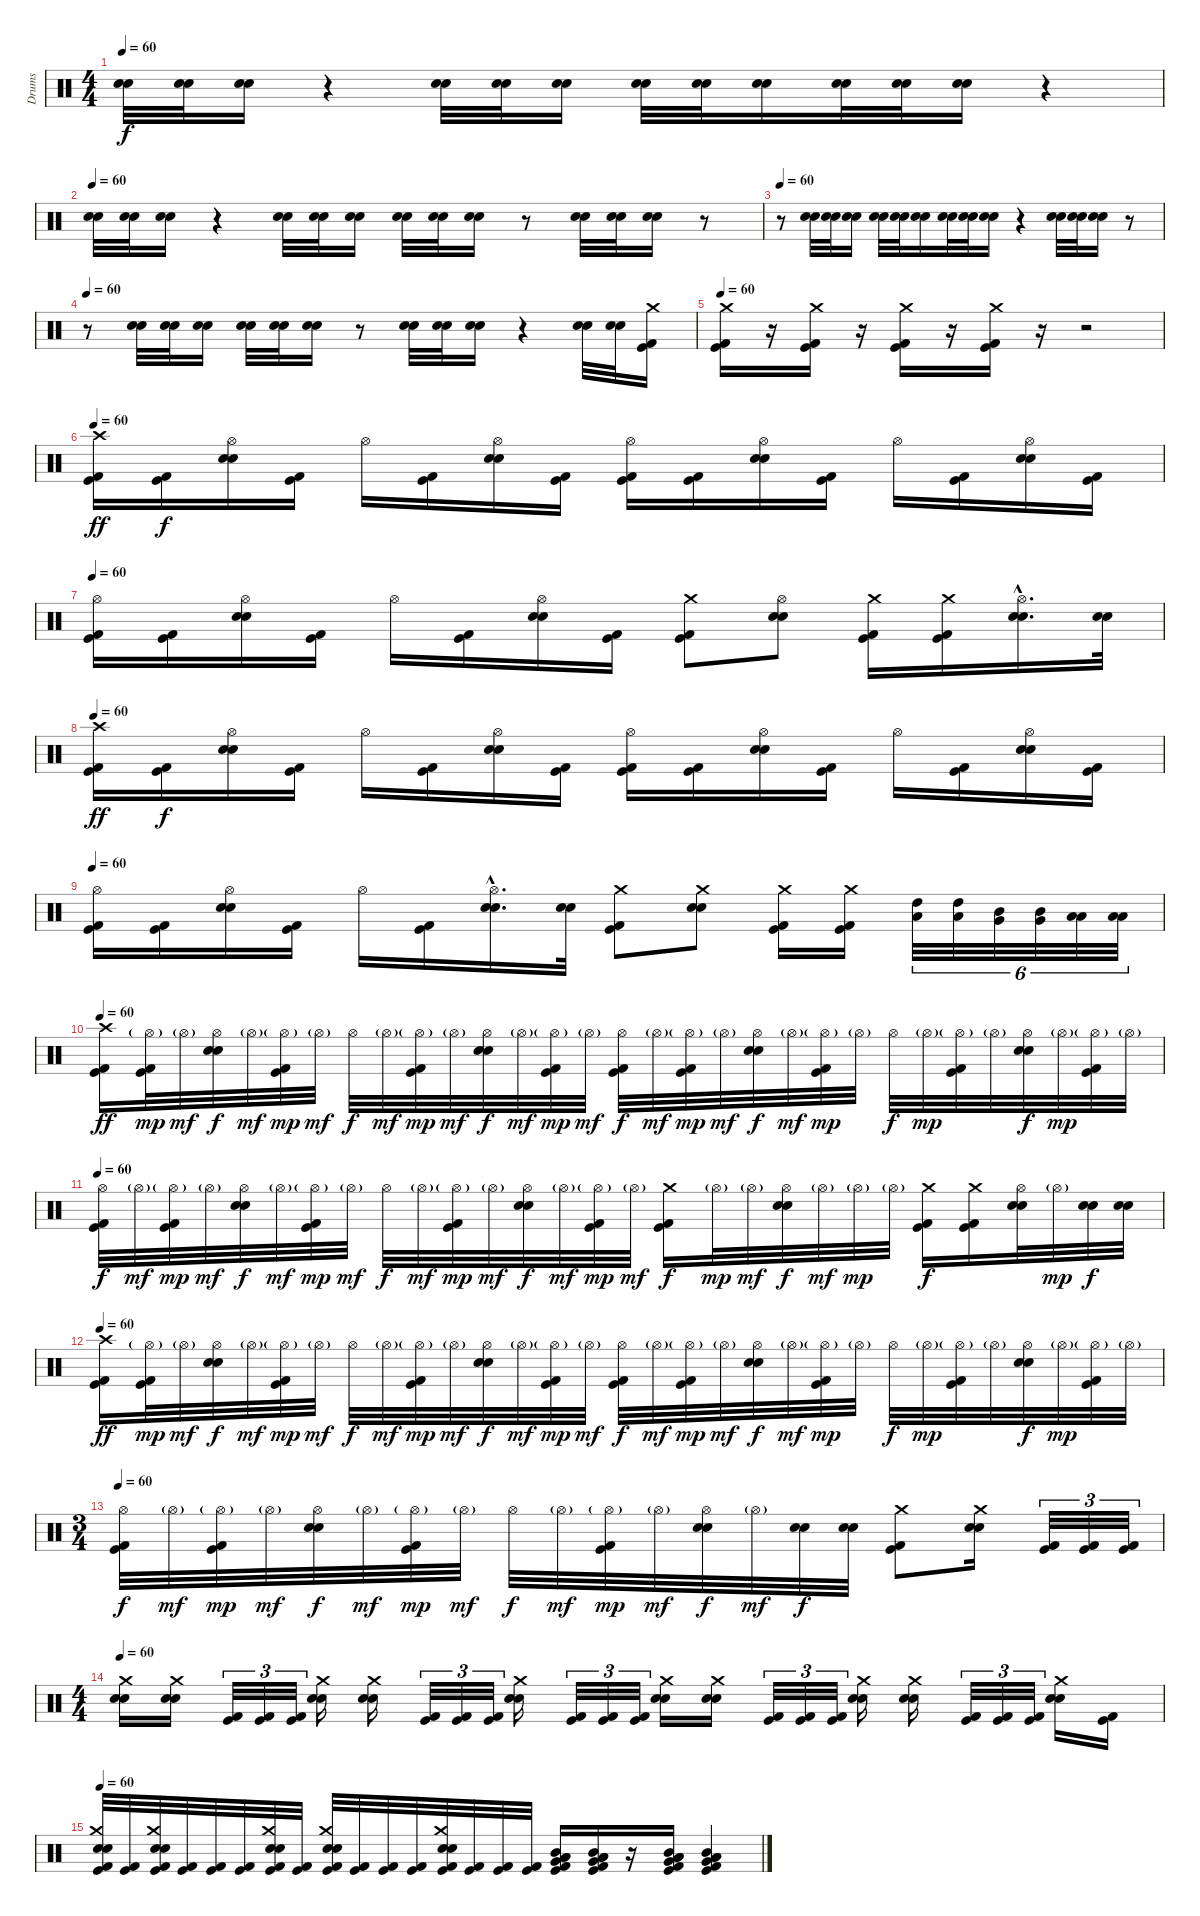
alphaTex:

\track ("Drums" "Drums") {instrument percussion}
\staff {score}
\articulation defaults
\ts (4 4)
\tempo 60
\clef neutral
\ks c
("Electric Snare (hit)" "Snare (hit) 2").32{dy f} ("Electric Snare (hit)" "Snare (hit) 2").32 ("Electric Snare (hit)" "Snare (hit) 2").16 r.4 ("Electric Snare (hit)" "Snare (hit) 2").32 ("Electric Snare (hit)" "Snare (hit) 2").32 ("Electric Snare (hit)" "Snare (hit) 2").16 ("Electric Snare (hit)" "Snare (hit) 2").32 ("Electric Snare (hit)" "Snare (hit) 2").32 ("Electric Snare (hit)" "Snare (hit) 2").16 ("Electric Snare (hit)" "Snare (hit) 2").32 ("Electric Snare (hit)" "Snare (hit) 2").32 ("Electric Snare (hit)" "Snare (hit) 2").16 r.4 |
\tempo 60
("Electric Snare (hit)" "Snare (hit) 2").32 ("Electric Snare (hit)" "Snare (hit) 2").32 ("Electric Snare (hit)" "Snare (hit) 2").16 r.4 ("Electric Snare (hit)" "Snare (hit) 2").32 ("Electric Snare (hit)" "Snare (hit) 2").32 ("Electric Snare (hit)" "Snare (hit) 2").16 ("Electric Snare (hit)" "Snare (hit) 2").32 ("Electric Snare (hit)" "Snare (hit) 2").32 ("Electric Snare (hit)" "Snare (hit) 2").16 r.8 ("Electric Snare (hit)" "Snare (hit) 2").32 ("Electric Snare (hit)" "Snare (hit) 2").32 ("Electric Snare (hit)" "Snare (hit) 2").16 r.8 |
\tempo 60
r.8 ("Electric Snare (hit)" "Snare (hit) 2").32 ("Electric Snare (hit)" "Snare (hit) 2").32 ("Electric Snare (hit)" "Snare (hit) 2").16 ("Electric Snare (hit)" "Snare (hit) 2").32 ("Electric Snare (hit)" "Snare (hit) 2").32 ("Electric Snare (hit)" "Snare (hit) 2").16 ("Electric Snare (hit)" "Snare (hit) 2").32 ("Electric Snare (hit)" "Snare (hit) 2").32 ("Electric Snare (hit)" "Snare (hit) 2").16 r.4 ("Electric Snare (hit)" "Snare (hit) 2").32 ("Electric Snare (hit)" "Snare (hit) 2").32 ("Electric Snare (hit)" "Snare (hit) 2").16 r.8 |
\tempo 60
r.8 ("Electric Snare (hit)" "Snare (hit) 2").32 ("Electric Snare (hit)" "Snare (hit) 2").32 ("Electric Snare (hit)" "Snare (hit) 2").16 ("Electric Snare (hit)" "Snare (hit) 2").32 ("Electric Snare (hit)" "Snare (hit) 2").32 ("Electric Snare (hit)" "Snare (hit) 2").16 r.8 ("Electric Snare (hit)" "Snare (hit) 2").32 ("Electric Snare (hit)" "Snare (hit) 2").32 ("Electric Snare (hit)" "Snare (hit) 2").16 r.4 ("Electric Snare (hit)" "Snare (hit) 2").32 ("Electric Snare (hit)" "Snare (hit) 2").32 ("Crash medium (hit)" "Kick (hit) 2" "Kick (hit)").16 |
\tempo 60
("Crash medium (hit)" "Kick (hit) 2" "Kick (hit)").16 r.16 ("Crash medium (hit)" "Kick (hit) 2" "Kick (hit)").16 r.16 ("Crash medium (hit)" "Kick (hit) 2" "Kick (hit)").16 r.16 ("Crash medium (hit)" "Kick (hit) 2" "Kick (hit)").16 r.16 r.2 |
\tempo 60
("Crash high (hit)" "Kick (hit) 2" "Kick (hit)").16{dy ff} ("Kick (hit) 2" "Kick (hit)").16{dy f} ("Hi-Hat (open)" "Electric Snare (hit)" "Snare (hit) 2").16 ("Kick (hit) 2" "Kick (hit)").16 "Hi-Hat (open)".16 ("Kick (hit) 2" "Kick (hit)").16 ("Hi-Hat (open)" "Electric Snare (hit)" "Snare (hit) 2").16 ("Kick (hit) 2" "Kick (hit)").16 ("Hi-Hat (open)" "Kick (hit) 2" "Kick (hit)").16 ("Kick (hit) 2" "Kick (hit)").16 ("Hi-Hat (open)" "Electric Snare (hit)" "Snare (hit) 2").16 ("Kick (hit) 2" "Kick (hit)").16 "Hi-Hat (open)".16 ("Kick (hit) 2" "Kick (hit)").16 ("Hi-Hat (open)" "Electric Snare (hit)" "Snare (hit) 2").16 ("Kick (hit) 2" "Kick (hit)").16 |
\tempo 60
("Hi-Hat (open)" "Kick (hit) 2" "Kick (hit)").16 ("Kick (hit) 2" "Kick (hit)").16 ("Hi-Hat (open)" "Electric Snare (hit)" "Snare (hit) 2").16 ("Kick (hit) 2" "Kick (hit)").16 "Hi-Hat (open)".16 ("Kick (hit) 2" "Kick (hit)").16 ("Hi-Hat (open)" "Electric Snare (hit)" "Snare (hit) 2").16 ("Kick (hit) 2" "Kick (hit)").16 ("Crash medium (hit)" "Kick (hit) 2" "Kick (hit)").8 ("Hi-Hat (open)" "Electric Snare (hit)" "Snare (hit) 2").8 ("Crash medium (hit)" "Kick (hit) 2" "Kick (hit)").16 ("Crash medium (hit)" "Kick (hit) 2" "Kick (hit)").16 ("Hi-Hat (open)"{hac} "Electric Snare (hit)"{hac} "Snare (hit) 2"{hac}).16{d} ("Electric Snare (hit)" "Snare (hit) 2").32 |
\tempo 60
("Crash high (hit)" "Kick (hit) 2" "Kick (hit)").16{dy ff} ("Kick (hit) 2" "Kick (hit)").16{dy f} ("Hi-Hat (open)" "Electric Snare (hit)" "Snare (hit) 2").16 ("Kick (hit) 2" "Kick (hit)").16 "Hi-Hat (open)".16 ("Kick (hit) 2" "Kick (hit)").16 ("Hi-Hat (open)" "Electric Snare (hit)" "Snare (hit) 2").16 ("Kick (hit) 2" "Kick (hit)").16 ("Hi-Hat (open)" "Kick (hit) 2" "Kick (hit)").16 ("Kick (hit) 2" "Kick (hit)").16 ("Hi-Hat (open)" "Electric Snare (hit)" "Snare (hit) 2").16 ("Kick (hit) 2" "Kick (hit)").16 "Hi-Hat (open)".16 ("Kick (hit) 2" "Kick (hit)").16 ("Hi-Hat (open)" "Electric Snare (hit)" "Snare (hit) 2").16 ("Kick (hit) 2" "Kick (hit)").16 |
\tempo 60
("Hi-Hat (open)" "Kick (hit) 2" "Kick (hit)").16 ("Kick (hit) 2" "Kick (hit)").16 ("Hi-Hat (open)" "Electric Snare (hit)" "Snare (hit) 2").16 ("Kick (hit) 2" "Kick (hit)").16 "Hi-Hat (open)".16 ("Kick (hit) 2" "Kick (hit)").16 ("Hi-Hat (open)"{hac} "Electric Snare (hit)"{hac} "Snare (hit) 2"{hac}).16{d} ("Electric Snare (hit)" "Snare (hit) 2").32 ("Crash medium (hit)" "Kick (hit) 2" "Kick (hit)").8 ("Crash medium (hit)" "Electric Snare (hit)" "Snare (hit) 2").8 ("Crash medium (hit)" "Kick (hit) 2" "Kick (hit)").16 ("Crash medium (hit)" "Kick (hit) 2" "Kick (hit)").16 ("High Tom (hit)" "Low Tom (hit)").32{tu (6 4)} ("High Tom (hit)" "Low Tom (hit)").32{tu (6 4)} ("Mid Tom (hit)" "Very Low Tom (hit)").32{tu (6 4)} ("Mid Tom (hit)" "Very Low Tom (hit)").32{tu (6 4)} ("Low Tom (hit)" "Low Floor Tom (hit)").32{tu (6 4)} ("Low Tom (hit)" "Low Floor Tom (hit)").32{tu (6 4)} |
\tempo 60
("Crash high (hit)" "Kick (hit) 2" "Kick (hit)").16{dy ff} ("Hi-Hat (open)"{g} "Kick (hit) 2" "Kick (hit)").32{dy mp} "Hi-Hat (open)"{g}.32{dy mf} ("Hi-Hat (open)" "Electric Snare (hit)" "Snare (hit) 2").32{dy f} "Hi-Hat (open)"{g}.32{dy mf} ("Hi-Hat (open)"{g} "Kick (hit) 2" "Kick (hit)").32{dy mp} "Hi-Hat (open)"{g}.32{dy mf} "Hi-Hat (open)".32{dy f} "Hi-Hat (open)"{g}.32{dy mf} ("Hi-Hat (open)"{g} "Kick (hit) 2" "Kick (hit)").32{dy mp} "Hi-Hat (open)"{g}.32{dy mf} ("Hi-Hat (open)" "Electric Snare (hit)" "Snare (hit) 2").32{dy f} "Hi-Hat (open)"{g}.32{dy mf} ("Hi-Hat (open)"{g} "Kick (hit) 2" "Kick (hit)").32{dy mp} "Hi-Hat (open)"{g}.32{dy mf} ("Hi-Hat (open)" "Kick (hit) 2" "Kick (hit)").32{dy f} "Hi-Hat (open)"{g}.32{dy mf} ("Hi-Hat (open)"{g} "Kick (hit) 2" "Kick (hit)").32{dy mp} "Hi-Hat (open)"{g}.32{dy mf} ("Hi-Hat (open)" "Electric Snare (hit)" "Snare (hit) 2").32{dy f} "Hi-Hat (open)"{g}.32{dy mf} ("Hi-Hat (open)"{g} "Kick (hit) 2" "Kick (hit)").32{dy mp} "Hi-Hat (open)"{g}.32 "Hi-Hat (open)".32{dy f} "Hi-Hat (open)"{g}.32{dy mp} ("Hi-Hat (open)"{g} "Kick (hit) 2" "Kick (hit)").32 "Hi-Hat (open)"{g}.32 ("Hi-Hat (open)" "Electric Snare (hit)" "Snare (hit) 2").32{dy f} "Hi-Hat (open)"{g}.32{dy mp} ("Hi-Hat (open)"{g} "Kick (hit) 2" "Kick (hit)").32 "Hi-Hat (open)"{g}.32 |
\tempo 60
("Hi-Hat (open)" "Kick (hit) 2" "Kick (hit)").32{dy f} "Hi-Hat (open)"{g}.32{dy mf} ("Hi-Hat (open)"{g} "Kick (hit) 2" "Kick (hit)").32{dy mp} "Hi-Hat (open)"{g}.32{dy mf} ("Hi-Hat (open)" "Electric Snare (hit)" "Snare (hit) 2").32{dy f} "Hi-Hat (open)"{g}.32{dy mf} ("Hi-Hat (open)"{g} "Kick (hit) 2" "Kick (hit)").32{dy mp} "Hi-Hat (open)"{g}.32{dy mf} "Hi-Hat (open)".32{dy f} "Hi-Hat (open)"{g}.32{dy mf} ("Hi-Hat (open)"{g} "Kick (hit) 2" "Kick (hit)").32{dy mp} "Hi-Hat (open)"{g}.32{dy mf} ("Hi-Hat (open)" "Electric Snare (hit)" "Snare (hit) 2").32{dy f} "Hi-Hat (open)"{g}.32{dy mf} ("Hi-Hat (open)"{g} "Kick (hit) 2" "Kick (hit)").32{dy mp} "Hi-Hat (open)"{g}.32{dy mf} ("Crash medium (hit)" "Kick (hit) 2" "Kick (hit)").16{dy f} "Hi-Hat (open)"{g}.32{dy mp} "Hi-Hat (open)"{g}.32{dy mf} ("Hi-Hat (open)" "Electric Snare (hit)" "Snare (hit) 2").32{dy f} "Hi-Hat (open)"{g}.32{dy mf} "Hi-Hat (open)"{g}.32{dy mp} "Hi-Hat (open)"{g}.32 ("Crash medium (hit)" "Kick (hit) 2" "Kick (hit)").16{dy f} ("Crash medium (hit)" "Kick (hit) 2" "Kick (hit)").16 ("Hi-Hat (open)" "Electric Snare (hit)" "Snare (hit) 2").32 "Hi-Hat (open)"{g}.32{dy mp} ("Electric Snare (hit)" "Snare (hit) 2").32{dy f} ("Electric Snare (hit)" "Snare (hit) 2").32 |
\tempo 60
("Crash high (hit)" "Kick (hit) 2" "Kick (hit)").16{dy ff} ("Hi-Hat (open)"{g} "Kick (hit) 2" "Kick (hit)").32{dy mp} "Hi-Hat (open)"{g}.32{dy mf} ("Hi-Hat (open)" "Electric Snare (hit)" "Snare (hit) 2").32{dy f} "Hi-Hat (open)"{g}.32{dy mf} ("Hi-Hat (open)"{g} "Kick (hit) 2" "Kick (hit)").32{dy mp} "Hi-Hat (open)"{g}.32{dy mf} "Hi-Hat (open)".32{dy f} "Hi-Hat (open)"{g}.32{dy mf} ("Hi-Hat (open)"{g} "Kick (hit) 2" "Kick (hit)").32{dy mp} "Hi-Hat (open)"{g}.32{dy mf} ("Hi-Hat (open)" "Electric Snare (hit)" "Snare (hit) 2").32{dy f} "Hi-Hat (open)"{g}.32{dy mf} ("Hi-Hat (open)"{g} "Kick (hit) 2" "Kick (hit)").32{dy mp} "Hi-Hat (open)"{g}.32{dy mf} ("Hi-Hat (open)" "Kick (hit) 2" "Kick (hit)").32{dy f} "Hi-Hat (open)"{g}.32{dy mf} ("Hi-Hat (open)"{g} "Kick (hit) 2" "Kick (hit)").32{dy mp} "Hi-Hat (open)"{g}.32{dy mf} ("Hi-Hat (open)" "Electric Snare (hit)" "Snare (hit) 2").32{dy f} "Hi-Hat (open)"{g}.32{dy mf} ("Hi-Hat (open)"{g} "Kick (hit) 2" "Kick (hit)").32{dy mp} "Hi-Hat (open)"{g}.32 "Hi-Hat (open)".32{dy f} "Hi-Hat (open)"{g}.32{dy mp} ("Hi-Hat (open)"{g} "Kick (hit) 2" "Kick (hit)").32 "Hi-Hat (open)"{g}.32 ("Hi-Hat (open)" "Electric Snare (hit)" "Snare (hit) 2").32{dy f} "Hi-Hat (open)"{g}.32{dy mp} ("Hi-Hat (open)"{g} "Kick (hit) 2" "Kick (hit)").32 "Hi-Hat (open)"{g}.32 |
\ts (3 4)
\tempo 60
("Hi-Hat (open)" "Kick (hit) 2" "Kick (hit)").32{dy f} "Hi-Hat (open)"{g}.32{dy mf} ("Hi-Hat (open)"{g} "Kick (hit) 2" "Kick (hit)").32{dy mp} "Hi-Hat (open)"{g}.32{dy mf} ("Hi-Hat (open)" "Electric Snare (hit)" "Snare (hit) 2").32{dy f} "Hi-Hat (open)"{g}.32{dy mf} ("Hi-Hat (open)"{g} "Kick (hit) 2" "Kick (hit)").32{dy mp} "Hi-Hat (open)"{g}.32{dy mf} "Hi-Hat (open)".32{dy f} "Hi-Hat (open)"{g}.32{dy mf} ("Hi-Hat (open)"{g} "Kick (hit) 2" "Kick (hit)").32{dy mp} "Hi-Hat (open)"{g}.32{dy mf} ("Hi-Hat (open)" "Electric Snare (hit)" "Snare (hit) 2").32{dy f} "Hi-Hat (open)"{g}.32{dy mf} ("Electric Snare (hit)" "Snare (hit) 2").32{dy f} ("Electric Snare (hit)" "Snare (hit) 2").32 ("Crash medium (hit)" "Kick (hit) 2" "Kick (hit)").8 ("Crash medium (hit)" "Electric Snare (hit)" "Snare (hit) 2").16 ("Kick (hit) 2" "Kick (hit)").32{tu (3 2)} ("Kick (hit) 2" "Kick (hit)").32{tu (3 2)} ("Kick (hit) 2" "Kick (hit)").32{tu (3 2)} |
\ts (4 4)
\tempo 60
("Crash medium (hit)" "Electric Snare (hit)" "Snare (hit) 2").16 ("Crash medium (hit)" "Electric Snare (hit)" "Snare (hit) 2").16 ("Kick (hit) 2" "Kick (hit)").32{tu (3 2)} ("Kick (hit) 2" "Kick (hit)").32{tu (3 2)} ("Kick (hit) 2" "Kick (hit)").32{tu (3 2)} ("Crash medium (hit)" "Electric Snare (hit)" "Snare (hit) 2").16 ("Crash medium (hit)" "Electric Snare (hit)" "Snare (hit) 2").16 ("Kick (hit) 2" "Kick (hit)").32{tu (3 2)} ("Kick (hit) 2" "Kick (hit)").32{tu (3 2)} ("Kick (hit) 2" "Kick (hit)").32{tu (3 2)} ("Crash medium (hit)" "Electric Snare (hit)" "Snare (hit) 2").16 ("Kick (hit) 2" "Kick (hit)").32{tu (3 2)} ("Kick (hit) 2" "Kick (hit)").32{tu (3 2)} ("Kick (hit) 2" "Kick (hit)").32{tu (3 2)} ("Crash medium (hit)" "Electric Snare (hit)" "Snare (hit) 2").16 ("Crash medium (hit)" "Electric Snare (hit)" "Snare (hit) 2").16 ("Kick (hit) 2" "Kick (hit)").32{tu (3 2)} ("Kick (hit) 2" "Kick (hit)").32{tu (3 2)} ("Kick (hit) 2" "Kick (hit)").32{tu (3 2)} ("Crash medium (hit)" "Electric Snare (hit)" "Snare (hit) 2").16 ("Crash medium (hit)" "Electric Snare (hit)" "Snare (hit) 2").16 ("Kick (hit) 2" "Kick (hit)").32{tu (3 2)} ("Kick (hit) 2" "Kick (hit)").32{tu (3 2)} ("Kick (hit) 2" "Kick (hit)").32{tu (3 2)} ("Crash medium (hit)" "Electric Snare (hit)" "Snare (hit) 2").16 ("Kick (hit) 2" "Kick (hit)").16 |
\tempo 60
("Crash medium (hit)" "Electric Snare (hit)" "Snare (hit) 2" "Kick (hit) 2" "Kick (hit)").32 ("Kick (hit) 2" "Kick (hit)").32 ("Crash medium (hit)" "Electric Snare (hit)" "Snare (hit) 2" "Kick (hit) 2" "Kick (hit)").32 ("Kick (hit) 2" "Kick (hit)").32 ("Kick (hit) 2" "Kick (hit)").32 ("Kick (hit) 2" "Kick (hit)").32 ("Crash medium (hit)" "Electric Snare (hit)" "Snare (hit) 2" "Kick (hit) 2" "Kick (hit)").32 ("Kick (hit) 2" "Kick (hit)").32 ("Crash medium (hit)" "Electric Snare (hit)" "Snare (hit) 2" "Kick (hit) 2" "Kick (hit)").32 ("Kick (hit) 2" "Kick (hit)").32 ("Kick (hit) 2" "Kick (hit)").32 ("Kick (hit) 2" "Kick (hit)").32 ("Crash medium (hit)" "Electric Snare (hit)" "Snare (hit) 2" "Kick (hit) 2" "Kick (hit)").32 ("Kick (hit) 2" "Kick (hit)").32 ("Kick (hit) 2" "Kick (hit)").32 ("Kick (hit) 2" "Kick (hit)").32 ("Very Low Tom (hit)" "Mid Tom (hit)" "Low Tom (hit)" "Low Floor Tom (hit)" "Kick (hit) 2" "Kick (hit)").16 ("Very Low Tom (hit)" "Mid Tom (hit)" "Low Tom (hit)" "Low Floor Tom (hit)" "Kick (hit) 2" "Kick (hit)").16 r.16 ("Very Low Tom (hit)" "Mid Tom (hit)" "Low Tom (hit)" "Low Floor Tom (hit)" "Kick (hit) 2" "Kick (hit)").16 ("Very Low Tom (hit)" "Mid Tom (hit)" "Low Tom (hit)" "Low Floor Tom (hit)" "Kick (hit) 2" "Kick (hit)").4
